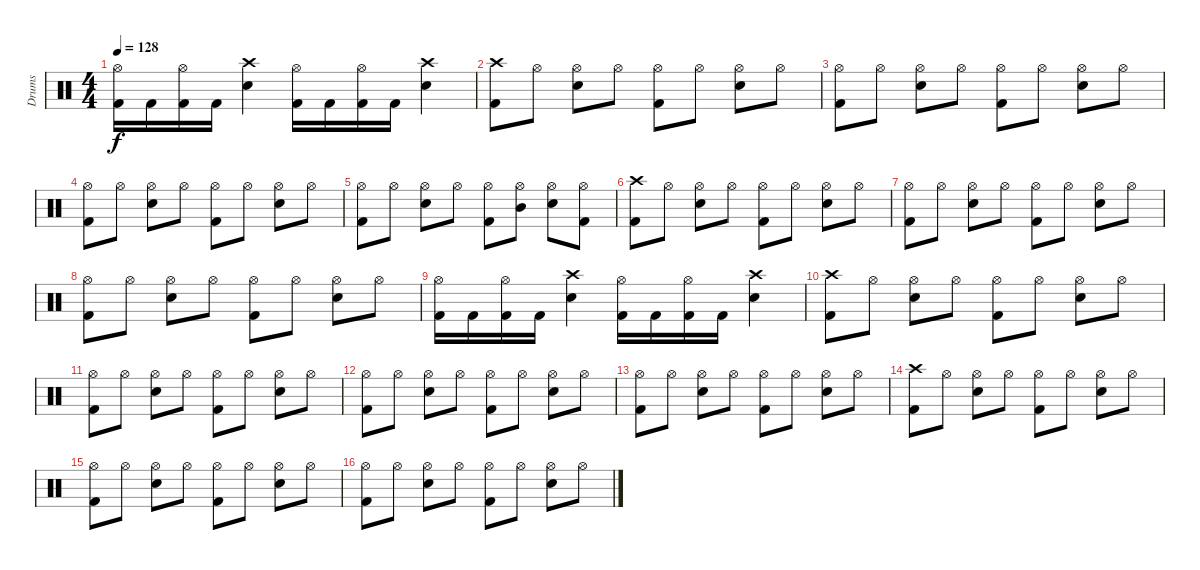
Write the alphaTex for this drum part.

\track ("Drums" "Drums") {instrument percussion}
\staff {score}
\articulation defaults
\ts (4 4)
\tempo 128
\clef neutral
\ks c
("Hi-Hat (open)" "Kick (hit) 2").16{dy f} "Kick (hit) 2".16 ("Hi-Hat (open)" "Kick (hit) 2").16 "Kick (hit) 2".16 ("Crash high (hit)" "Snare (hit) 2").4 ("Hi-Hat (open)" "Kick (hit) 2").16 "Kick (hit) 2".16 ("Hi-Hat (open)" "Kick (hit) 2").16 "Kick (hit) 2".16 ("Crash high (hit)" "Snare (hit) 2").4 |
("Crash high (hit)" "Kick (hit) 2").8 "Hi-Hat (open)".8 ("Hi-Hat (open)" "Snare (hit) 2").8 "Hi-Hat (open)".8 ("Hi-Hat (open)" "Kick (hit) 2").8 "Hi-Hat (open)".8 ("Hi-Hat (open)" "Snare (hit) 2").8 "Hi-Hat (open)".8 |
("Hi-Hat (open)" "Kick (hit) 2").8 "Hi-Hat (open)".8 ("Hi-Hat (open)" "Snare (hit) 2").8 "Hi-Hat (open)".8 ("Hi-Hat (open)" "Kick (hit) 2").8 "Hi-Hat (open)".8 ("Hi-Hat (open)" "Snare (hit) 2").8 "Hi-Hat (open)".8 |
("Hi-Hat (open)" "Kick (hit) 2").8 "Hi-Hat (open)".8 ("Hi-Hat (open)" "Snare (hit) 2").8 "Hi-Hat (open)".8 ("Hi-Hat (open)" "Kick (hit) 2").8 "Hi-Hat (open)".8 ("Hi-Hat (open)" "Snare (hit) 2").8 "Hi-Hat (open)".8 |
("Hi-Hat (open)" "Kick (hit) 2").8 "Hi-Hat (open)".8 ("Hi-Hat (open)" "Snare (hit) 2").8 "Hi-Hat (open)".8 ("Hi-Hat (open)" "Kick (hit) 2").8 ("Hi-Hat (open)" "Mid Tom (hit)").8 ("Hi-Hat (open)" "Snare (hit) 2").8 ("Hi-Hat (open)" "Kick (hit) 2").8 |
("Crash high (hit)" "Kick (hit) 2").8 "Hi-Hat (open)".8 ("Hi-Hat (open)" "Snare (hit) 2").8 "Hi-Hat (open)".8 ("Hi-Hat (open)" "Kick (hit) 2").8 "Hi-Hat (open)".8 ("Hi-Hat (open)" "Snare (hit) 2").8 "Hi-Hat (open)".8 |
("Hi-Hat (open)" "Kick (hit) 2").8 "Hi-Hat (open)".8 ("Hi-Hat (open)" "Snare (hit) 2").8 "Hi-Hat (open)".8 ("Hi-Hat (open)" "Kick (hit) 2").8 "Hi-Hat (open)".8 ("Hi-Hat (open)" "Snare (hit) 2").8 "Hi-Hat (open)".8 |
("Hi-Hat (open)" "Kick (hit) 2").8 "Hi-Hat (open)".8 ("Hi-Hat (open)" "Snare (hit) 2").8 "Hi-Hat (open)".8 ("Hi-Hat (open)" "Kick (hit) 2").8 "Hi-Hat (open)".8 ("Hi-Hat (open)" "Snare (hit) 2").8 "Hi-Hat (open)".8 |
("Hi-Hat (open)" "Kick (hit) 2").16 "Kick (hit) 2".16 ("Hi-Hat (open)" "Kick (hit) 2").16 "Kick (hit) 2".16 ("Crash high (hit)" "Snare (hit) 2").4 ("Hi-Hat (open)" "Kick (hit) 2").16 "Kick (hit) 2".16 ("Hi-Hat (open)" "Kick (hit) 2").16 "Kick (hit) 2".16 ("Crash high (hit)" "Snare (hit) 2").4 |
("Crash high (hit)" "Kick (hit) 2").8 "Hi-Hat (open)".8 ("Hi-Hat (open)" "Snare (hit) 2").8 "Hi-Hat (open)".8 ("Hi-Hat (open)" "Kick (hit) 2").8 "Hi-Hat (open)".8 ("Hi-Hat (open)" "Snare (hit) 2").8 "Hi-Hat (open)".8 |
("Hi-Hat (open)" "Kick (hit) 2").8 "Hi-Hat (open)".8 ("Hi-Hat (open)" "Snare (hit) 2").8 "Hi-Hat (open)".8 ("Hi-Hat (open)" "Kick (hit) 2").8 "Hi-Hat (open)".8 ("Hi-Hat (open)" "Snare (hit) 2").8 "Hi-Hat (open)".8 |
("Hi-Hat (open)" "Kick (hit) 2").8 "Hi-Hat (open)".8 ("Hi-Hat (open)" "Snare (hit) 2").8 "Hi-Hat (open)".8 ("Hi-Hat (open)" "Kick (hit) 2").8 "Hi-Hat (open)".8 ("Hi-Hat (open)" "Snare (hit) 2").8 "Hi-Hat (open)".8 |
("Hi-Hat (open)" "Kick (hit) 2").8 "Hi-Hat (open)".8 ("Hi-Hat (open)" "Snare (hit) 2").8 "Hi-Hat (open)".8 ("Hi-Hat (open)" "Kick (hit) 2").8 "Hi-Hat (open)".8 ("Hi-Hat (open)" "Snare (hit) 2").8 "Hi-Hat (open)".8 |
("Crash high (hit)" "Kick (hit) 2").8 "Hi-Hat (open)".8 ("Hi-Hat (open)" "Snare (hit) 2").8 "Hi-Hat (open)".8 ("Hi-Hat (open)" "Kick (hit) 2").8 "Hi-Hat (open)".8 ("Hi-Hat (open)" "Snare (hit) 2").8 "Hi-Hat (open)".8 |
("Hi-Hat (open)" "Kick (hit) 2").8 "Hi-Hat (open)".8 ("Hi-Hat (open)" "Snare (hit) 2").8 "Hi-Hat (open)".8 ("Hi-Hat (open)" "Kick (hit) 2").8 "Hi-Hat (open)".8 ("Hi-Hat (open)" "Snare (hit) 2").8 "Hi-Hat (open)".8 |
("Hi-Hat (open)" "Kick (hit) 2").8 "Hi-Hat (open)".8 ("Hi-Hat (open)" "Snare (hit) 2").8 "Hi-Hat (open)".8 ("Hi-Hat (open)" "Kick (hit) 2").8 "Hi-Hat (open)".8 ("Hi-Hat (open)" "Snare (hit) 2").8 "Hi-Hat (open)".8
